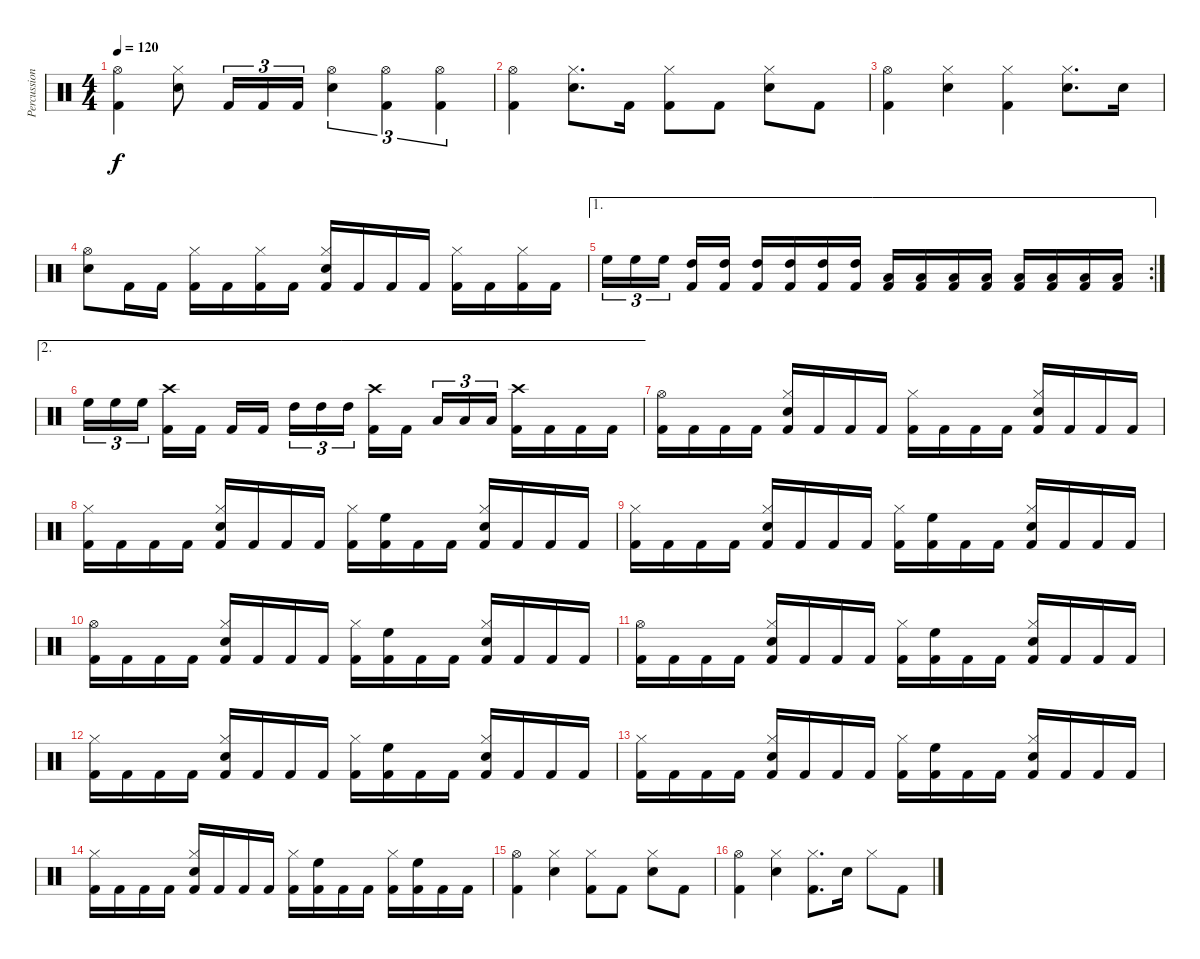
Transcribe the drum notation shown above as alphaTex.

\track ("Percussions" "Percussion") {instrument percussion}
\staff {score}
\articulation defaults
\ts (4 4)
\tempo 120
\clef neutral
\ks c
("Hi-Hat (open)" "Kick (hit) 2").4{dy f} ("Hi-Hat (closed)" "Snare (hit) 2").8 "Kick (hit) 2".16{tu (3 2)} "Kick (hit) 2".16{tu (3 2)} "Kick (hit) 2".16{tu (3 2)} ("Hi-Hat (open)" "Snare (hit) 2").4{tu (3 2)} ("Hi-Hat (open)" "Kick (hit) 2").4{tu (3 2)} ("Hi-Hat (open)" "Kick (hit) 2").4{tu (3 2)} |
("Hi-Hat (open)" "Kick (hit) 2").4 ("Hi-Hat (closed)" "Snare (hit) 2").8{d} "Kick (hit) 2".16 ("Hi-Hat (closed)" "Kick (hit) 2").8 "Kick (hit) 2".8 ("Hi-Hat (closed)" "Snare (hit) 2").8 "Kick (hit) 2".8 |
("Hi-Hat (open)" "Kick (hit) 2").4 ("Hi-Hat (closed)" "Snare (hit) 2").4 ("Hi-Hat (closed)" "Kick (hit) 2").4 ("Hi-Hat (closed)" "Snare (hit) 2").8{d} "Snare (hit) 2".16 |
("Hi-Hat (open)" "Snare (hit) 2").8 "Kick (hit) 2".16 "Kick (hit) 2".16 ("Hi-Hat (closed)" "Kick (hit) 2").16 "Kick (hit) 2".16 ("Hi-Hat (closed)" "Kick (hit) 2").16 "Kick (hit) 2".16 ("Hi-Hat (closed)" "Snare (hit) 2" "Kick (hit) 2").16 "Kick (hit) 2".16 "Kick (hit) 2".16 "Kick (hit) 2".16 ("Hi-Hat (closed)" "Kick (hit) 2").16 "Kick (hit) 2".16 ("Hi-Hat (closed)" "Kick (hit) 2").16 "Kick (hit) 2".16 |
\ae 1
\rc 2 "High Floor Tom (hit)".16{tu (3 2)} "High Floor Tom (hit)".16{tu (3 2)} "High Floor Tom (hit)".16{tu (3 2)}
("High Tom (hit)" "Kick (hit) 2").16 ("High Tom (hit)" "Kick (hit) 2").16 ("High Tom (hit)" "Kick (hit) 2").16 ("High Tom (hit)" "Kick (hit) 2").16 ("High Tom (hit)" "Kick (hit) 2").16 ("High Tom (hit)" "Kick (hit) 2").16 ("Low Tom (hit)" "Kick (hit) 2").16 ("Low Tom (hit)" "Kick (hit) 2").16 ("Low Tom (hit)" "Kick (hit) 2").16 ("Low Tom (hit)" "Kick (hit) 2").16 ("Low Floor Tom (hit)" "Kick (hit) 2").16 ("Low Floor Tom (hit)" "Kick (hit) 2").16 ("Low Floor Tom (hit)" "Kick (hit) 2").16 ("Low Floor Tom (hit)" "Kick (hit) 2").16 |
\ae 2 "High Floor Tom (hit)".16{tu (3 2)} "High Floor Tom (hit)".16{tu (3 2)} "High Floor Tom (hit)".16{tu (3 2)}
("Crash high (hit)" "Kick (hit) 2").16 "Kick (hit) 2".16 "Kick (hit) 2".16 "Kick (hit) 2".16 "High Tom (hit)".16{tu (3 2)} "High Tom (hit)".16{tu (3 2)} "High Tom (hit)".16{tu (3 2)} ("Crash high (hit)" "Kick (hit) 2").16 "Kick (hit) 2".16 "Low Tom (hit)".16{tu (3 2)} "Low Tom (hit)".16{tu (3 2)} "Low Tom (hit)".16{tu (3 2)} ("Crash high (hit)" "Kick (hit) 2").16 "Kick (hit) 2".16 "Kick (hit) 2".16 "Kick (hit) 2".16 |
("Hi-Hat (open)" "Kick (hit) 2").16 "Kick (hit) 2".16 "Kick (hit) 2".16 "Kick (hit) 2".16 ("Hi-Hat (closed)" "Snare (hit) 2" "Kick (hit) 2").16 "Kick (hit) 2".16 "Kick (hit) 2".16 "Kick (hit) 2".16 ("Hi-Hat (closed)" "Kick (hit) 2").16 "Kick (hit) 2".16 "Kick (hit) 2".16 "Kick (hit) 2".16 ("Hi-Hat (closed)" "Snare (hit) 2" "Kick (hit) 2").16 "Kick (hit) 2".16 "Kick (hit) 2".16 "Kick (hit) 2".16 |
("Hi-Hat (closed)" "Kick (hit) 2").16 "Kick (hit) 2".16 "Kick (hit) 2".16 "Kick (hit) 2".16 ("Hi-Hat (closed)" "Snare (hit) 2" "Kick (hit) 2").16 "Kick (hit) 2".16 "Kick (hit) 2".16 "Kick (hit) 2".16 ("Hi-Hat (closed)" "Kick (hit) 2").16 ("High Floor Tom (hit)" "Kick (hit) 2").16 "Kick (hit) 2".16 "Kick (hit) 2".16 ("Hi-Hat (closed)" "Snare (hit) 2" "Kick (hit) 2").16 "Kick (hit) 2".16 "Kick (hit) 2".16 "Kick (hit) 2".16 |
("Hi-Hat (closed)" "Kick (hit) 2").16 "Kick (hit) 2".16 "Kick (hit) 2".16 "Kick (hit) 2".16 ("Hi-Hat (closed)" "Snare (hit) 2" "Kick (hit) 2").16 "Kick (hit) 2".16 "Kick (hit) 2".16 "Kick (hit) 2".16 ("Hi-Hat (closed)" "Kick (hit) 2").16 ("High Floor Tom (hit)" "Kick (hit) 2").16 "Kick (hit) 2".16 "Kick (hit) 2".16 ("Hi-Hat (closed)" "Snare (hit) 2" "Kick (hit) 2").16 "Kick (hit) 2".16 "Kick (hit) 2".16 "Kick (hit) 2".16 |
("Hi-Hat (open)" "Kick (hit) 2").16 "Kick (hit) 2".16 "Kick (hit) 2".16 "Kick (hit) 2".16 ("Hi-Hat (closed)" "Snare (hit) 2" "Kick (hit) 2").16 "Kick (hit) 2".16 "Kick (hit) 2".16 "Kick (hit) 2".16 ("Hi-Hat (closed)" "Kick (hit) 2").16 ("High Floor Tom (hit)" "Kick (hit) 2").16 "Kick (hit) 2".16 "Kick (hit) 2".16 ("Hi-Hat (closed)" "Snare (hit) 2" "Kick (hit) 2").16 "Kick (hit) 2".16 "Kick (hit) 2".16 "Kick (hit) 2".16 |
("Hi-Hat (open)" "Kick (hit) 2").16 "Kick (hit) 2".16 "Kick (hit) 2".16 "Kick (hit) 2".16 ("Hi-Hat (closed)" "Snare (hit) 2" "Kick (hit) 2").16 "Kick (hit) 2".16 "Kick (hit) 2".16 "Kick (hit) 2".16 ("Hi-Hat (closed)" "Kick (hit) 2").16 ("High Floor Tom (hit)" "Kick (hit) 2").16 "Kick (hit) 2".16 "Kick (hit) 2".16 ("Hi-Hat (closed)" "Snare (hit) 2" "Kick (hit) 2").16 "Kick (hit) 2".16 "Kick (hit) 2".16 "Kick (hit) 2".16 |
("Hi-Hat (closed)" "Kick (hit) 2").16 "Kick (hit) 2".16 "Kick (hit) 2".16 "Kick (hit) 2".16 ("Hi-Hat (closed)" "Snare (hit) 2" "Kick (hit) 2").16 "Kick (hit) 2".16 "Kick (hit) 2".16 "Kick (hit) 2".16 ("Hi-Hat (closed)" "Kick (hit) 2").16 ("High Floor Tom (hit)" "Kick (hit) 2").16 "Kick (hit) 2".16 "Kick (hit) 2".16 ("Hi-Hat (closed)" "Snare (hit) 2" "Kick (hit) 2").16 "Kick (hit) 2".16 "Kick (hit) 2".16 "Kick (hit) 2".16 |
("Hi-Hat (closed)" "Kick (hit) 2").16 "Kick (hit) 2".16 "Kick (hit) 2".16 "Kick (hit) 2".16 ("Hi-Hat (closed)" "Snare (hit) 2" "Kick (hit) 2").16 "Kick (hit) 2".16 "Kick (hit) 2".16 "Kick (hit) 2".16 ("Hi-Hat (closed)" "Kick (hit) 2").16 ("High Floor Tom (hit)" "Kick (hit) 2").16 "Kick (hit) 2".16 "Kick (hit) 2".16 ("Hi-Hat (closed)" "Snare (hit) 2" "Kick (hit) 2").16 "Kick (hit) 2".16 "Kick (hit) 2".16 "Kick (hit) 2".16 |
("Hi-Hat (closed)" "Kick (hit) 2").16 "Kick (hit) 2".16 "Kick (hit) 2".16 "Kick (hit) 2".16 ("Hi-Hat (closed)" "Snare (hit) 2" "Kick (hit) 2").16 "Kick (hit) 2".16 "Kick (hit) 2".16 "Kick (hit) 2".16 ("Hi-Hat (closed)" "Kick (hit) 2").16 ("High Floor Tom (hit)" "Kick (hit) 2").16 "Kick (hit) 2".16 "Kick (hit) 2".16 ("Hi-Hat (closed)" "Kick (hit) 2").16 ("High Floor Tom (hit)" "Kick (hit) 2").16 "Kick (hit) 2".16 "Kick (hit) 2".16 |
("Hi-Hat (open)" "Kick (hit) 2").4 ("Hi-Hat (closed)" "Snare (hit) 2").4 ("Hi-Hat (closed)" "Kick (hit) 2").8 "Kick (hit) 2".8 ("Hi-Hat (closed)" "Snare (hit) 2").8 "Kick (hit) 2".8 |
("Hi-Hat (open)" "Kick (hit) 2").4 ("Hi-Hat (closed)" "Snare (hit) 2").4 ("Hi-Hat (closed)" "Kick (hit) 2").8{d} "Snare (hit) 2".16 "Hi-Hat (closed)".8 "Kick (hit) 2".8
